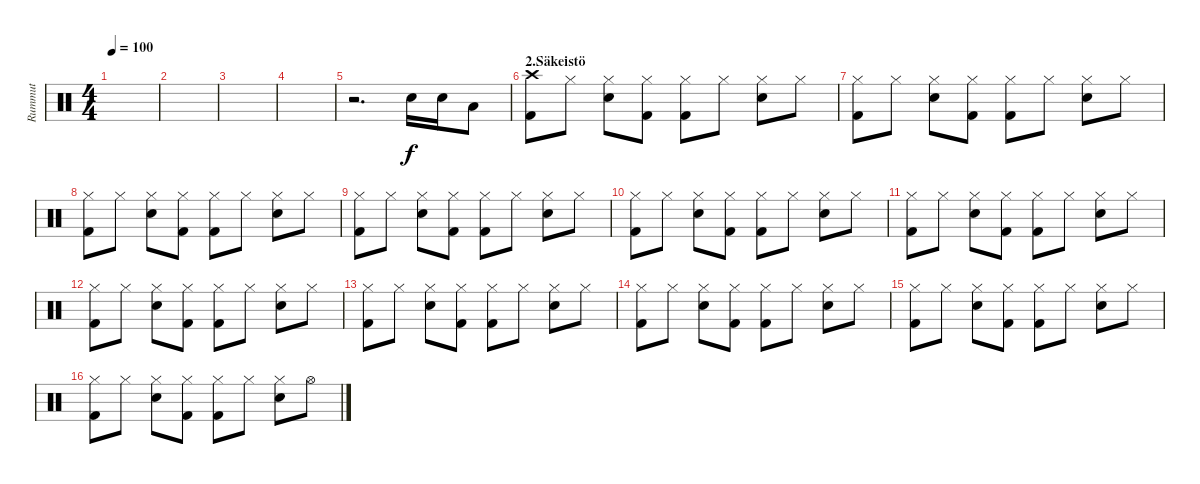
\track ("Rummut" "Rummut") {instrument percussion}
\staff {score}
\articulation defaults
\ts (4 4)
\tempo 100
\clef neutral
\ks c
|
|
|
|
r.2{d} "Snare (hit) 2".16{dy f} "Snare (hit) 2".16 "Low Tom (hit)".8 |
\section ("" "2.Säkeistö")
("Crash high (hit)" "Kick (hit) 2").8 "Hi-Hat (closed)".8 ("Hi-Hat (closed)" "Snare (hit) 2").8 ("Hi-Hat (closed)" "Kick (hit) 2").8 ("Hi-Hat (closed)" "Kick (hit) 2").8 "Hi-Hat (closed)".8 ("Hi-Hat (closed)" "Snare (hit) 2").8 "Hi-Hat (closed)".8 |
("Hi-Hat (closed)" "Kick (hit) 2").8 "Hi-Hat (closed)".8 ("Hi-Hat (closed)" "Snare (hit) 2").8 ("Hi-Hat (closed)" "Kick (hit) 2").8 ("Hi-Hat (closed)" "Kick (hit) 2").8 "Hi-Hat (closed)".8 ("Hi-Hat (closed)" "Snare (hit) 2").8 "Hi-Hat (closed)".8 |
("Hi-Hat (closed)" "Kick (hit) 2").8 "Hi-Hat (closed)".8 ("Hi-Hat (closed)" "Snare (hit) 2").8 ("Hi-Hat (closed)" "Kick (hit) 2").8 ("Hi-Hat (closed)" "Kick (hit) 2").8 "Hi-Hat (closed)".8 ("Hi-Hat (closed)" "Snare (hit) 2").8 "Hi-Hat (closed)".8 |
("Hi-Hat (closed)" "Kick (hit) 2").8 "Hi-Hat (closed)".8 ("Hi-Hat (closed)" "Snare (hit) 2").8 ("Hi-Hat (closed)" "Kick (hit) 2").8 ("Hi-Hat (closed)" "Kick (hit) 2").8 "Hi-Hat (closed)".8 ("Hi-Hat (closed)" "Snare (hit) 2").8 "Hi-Hat (closed)".8 |
("Hi-Hat (closed)" "Kick (hit) 2").8 "Hi-Hat (closed)".8 ("Hi-Hat (closed)" "Snare (hit) 2").8 ("Hi-Hat (closed)" "Kick (hit) 2").8 ("Hi-Hat (closed)" "Kick (hit) 2").8 "Hi-Hat (closed)".8 ("Hi-Hat (closed)" "Snare (hit) 2").8 "Hi-Hat (closed)".8 |
("Hi-Hat (closed)" "Kick (hit) 2").8 "Hi-Hat (closed)".8 ("Hi-Hat (closed)" "Snare (hit) 2").8 ("Hi-Hat (closed)" "Kick (hit) 2").8 ("Hi-Hat (closed)" "Kick (hit) 2").8 "Hi-Hat (closed)".8 ("Hi-Hat (closed)" "Snare (hit) 2").8 "Hi-Hat (closed)".8 |
("Hi-Hat (closed)" "Kick (hit) 2").8 "Hi-Hat (closed)".8 ("Hi-Hat (closed)" "Snare (hit) 2").8 ("Hi-Hat (closed)" "Kick (hit) 2").8 ("Hi-Hat (closed)" "Kick (hit) 2").8 "Hi-Hat (closed)".8 ("Hi-Hat (closed)" "Snare (hit) 2").8 "Hi-Hat (closed)".8 |
("Hi-Hat (closed)" "Kick (hit) 2").8 "Hi-Hat (closed)".8 ("Hi-Hat (closed)" "Snare (hit) 2").8 ("Hi-Hat (closed)" "Kick (hit) 2").8 ("Hi-Hat (closed)" "Kick (hit) 2").8 "Hi-Hat (closed)".8 ("Hi-Hat (closed)" "Snare (hit) 2").8 "Hi-Hat (closed)".8 |
("Hi-Hat (closed)" "Kick (hit) 2").8 "Hi-Hat (closed)".8 ("Hi-Hat (closed)" "Snare (hit) 2").8 ("Hi-Hat (closed)" "Kick (hit) 2").8 ("Hi-Hat (closed)" "Kick (hit) 2").8 "Hi-Hat (closed)".8 ("Hi-Hat (closed)" "Snare (hit) 2").8 "Hi-Hat (closed)".8 |
("Hi-Hat (closed)" "Kick (hit) 2").8 "Hi-Hat (closed)".8 ("Hi-Hat (closed)" "Snare (hit) 2").8 ("Hi-Hat (closed)" "Kick (hit) 2").8 ("Hi-Hat (closed)" "Kick (hit) 2").8 "Hi-Hat (closed)".8 ("Hi-Hat (closed)" "Snare (hit) 2").8 "Hi-Hat (closed)".8 |
("Hi-Hat (closed)" "Kick (hit) 2").8 "Hi-Hat (closed)".8 ("Hi-Hat (closed)" "Snare (hit) 2").8 ("Hi-Hat (closed)" "Kick (hit) 2").8 ("Hi-Hat (closed)" "Kick (hit) 2").8 "Hi-Hat (closed)".8 ("Hi-Hat (closed)" "Snare (hit) 2").8 "Hi-Hat (open)".8
